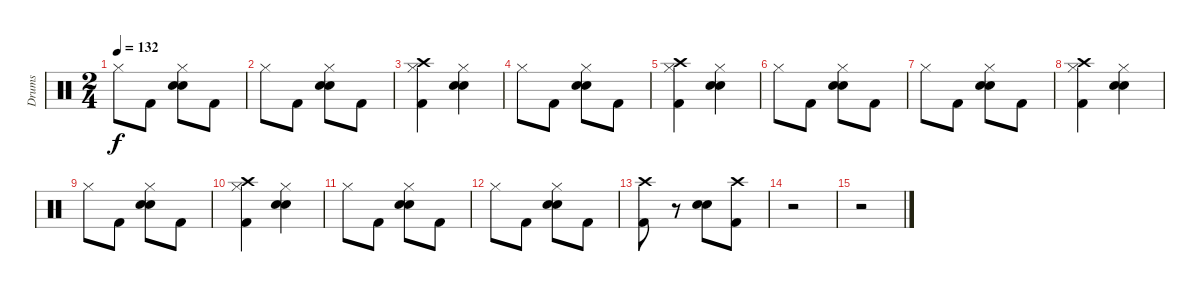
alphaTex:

\track ("Drums" "Drums") {instrument percussion}
\staff {score}
\articulation defaults
\ts (2 4)
\tempo 132
\clef neutral
\ks c "Hi-Hat (closed)".8{dy f} "Kick (hit) 2".8
("Electric Snare (hit)" "Electric Snare (hit)" "Hi-Hat (closed)").8 "Kick (hit) 2".8 |
"Hi-Hat (closed)".8 "Kick (hit) 2".8 ("Electric Snare (hit)" "Electric Snare (hit)" "Hi-Hat (closed)").8 "Kick (hit) 2".8 |
("Kick (hit) 2" "Crash high (hit)" "Hi-Hat (closed)").4 ("Electric Snare (hit)" "Electric Snare (hit)" "Hi-Hat (closed)").4 |
"Hi-Hat (closed)".8 "Kick (hit) 2".8 ("Electric Snare (hit)" "Electric Snare (hit)" "Hi-Hat (closed)").8 "Kick (hit) 2".8 |
("Kick (hit) 2" "Crash high (hit)" "Hi-Hat (closed)").4 ("Electric Snare (hit)" "Electric Snare (hit)" "Hi-Hat (closed)").4 |
"Hi-Hat (closed)".8 "Kick (hit) 2".8 ("Electric Snare (hit)" "Electric Snare (hit)" "Hi-Hat (closed)").8 "Kick (hit) 2".8 |
"Hi-Hat (closed)".8 "Kick (hit) 2".8 ("Electric Snare (hit)" "Electric Snare (hit)" "Hi-Hat (closed)").8 "Kick (hit) 2".8 |
("Kick (hit) 2" "Crash high (hit)" "Hi-Hat (closed)").4 ("Electric Snare (hit)" "Electric Snare (hit)" "Hi-Hat (closed)").4 |
"Hi-Hat (closed)".8 "Kick (hit) 2".8 ("Electric Snare (hit)" "Electric Snare (hit)" "Hi-Hat (closed)").8 "Kick (hit) 2".8 |
("Kick (hit) 2" "Crash high (hit)" "Hi-Hat (closed)").4 ("Electric Snare (hit)" "Electric Snare (hit)" "Hi-Hat (closed)").4 |
"Hi-Hat (closed)".8 "Kick (hit) 2".8 ("Electric Snare (hit)" "Electric Snare (hit)" "Hi-Hat (closed)").8 "Kick (hit) 2".8 |
"Hi-Hat (closed)".8 "Kick (hit) 2".8 ("Electric Snare (hit)" "Electric Snare (hit)" "Hi-Hat (closed)").8 "Kick (hit) 2".8 |
("Crash high (hit)" "Kick (hit) 2").8 r.8 ("Electric Snare (hit)" "Electric Snare (hit)").8 ("Crash high (hit)" "Kick (hit) 2").8 |
r.2 |
r.2
